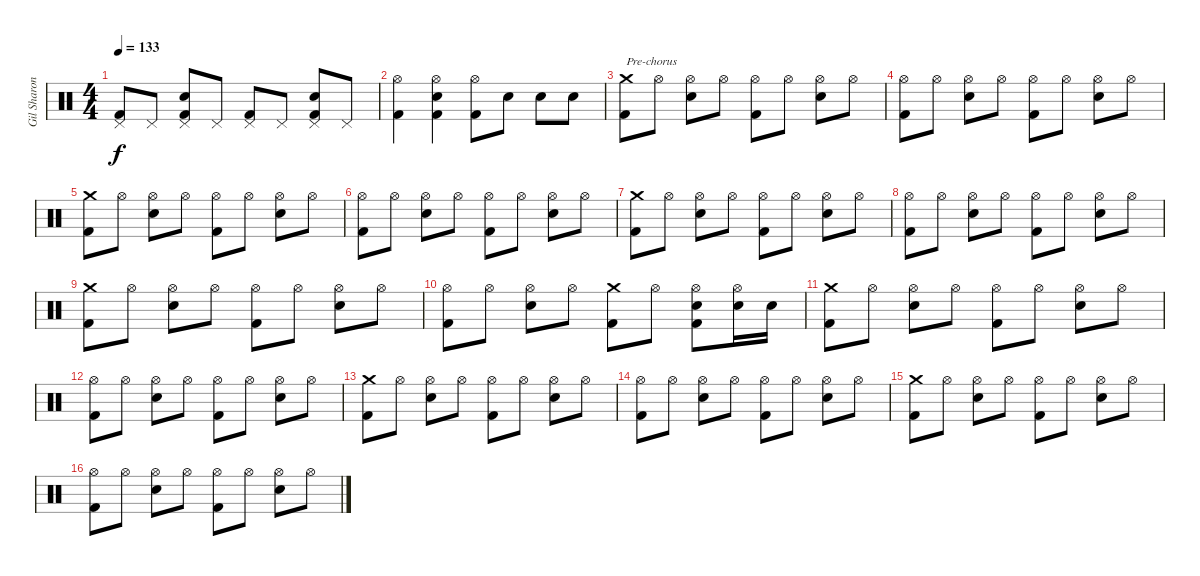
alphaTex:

\track ("Gil Sharone" "Gil Sharon") {instrument percussion}
\staff {score}
\articulation defaults
\ts (4 4)
\tempo 133
\clef neutral
\ks c
("Pedal Hi-Hat (hit)" "Kick (hit) 2").8{dy f} "Pedal Hi-Hat (hit)".8 ("Pedal Hi-Hat (hit)" "Electric Snare (hit)" "Kick (hit) 2").8 "Pedal Hi-Hat (hit)".8 ("Pedal Hi-Hat (hit)" "Kick (hit) 2").8 "Pedal Hi-Hat (hit)".8 ("Pedal Hi-Hat (hit)" "Electric Snare (hit)" "Kick (hit) 2").8 "Pedal Hi-Hat (hit)".8 |
("Hi-Hat (open)" "Kick (hit) 2").4 ("Hi-Hat (open)" "Electric Snare (hit)" "Kick (hit) 2").4 ("Hi-Hat (open)" "Kick (hit) 2").8 "Electric Snare (hit)".8 "Electric Snare (hit)".8 "Electric Snare (hit)".8 |
("Crash medium (hit)" "Kick (hit) 2").8{txt "Pre-chorus"} "Hi-Hat (open)".8 ("Hi-Hat (open)" "Electric Snare (hit)").8 "Hi-Hat (open)".8 ("Hi-Hat (open)" "Kick (hit) 2").8 "Hi-Hat (open)".8 ("Hi-Hat (open)" "Electric Snare (hit)").8 "Hi-Hat (open)".8 |
("Hi-Hat (open)" "Kick (hit) 2").8 "Hi-Hat (open)".8 ("Hi-Hat (open)" "Electric Snare (hit)").8 "Hi-Hat (open)".8 ("Hi-Hat (open)" "Kick (hit) 2").8 "Hi-Hat (open)".8 ("Hi-Hat (open)" "Electric Snare (hit)").8 "Hi-Hat (open)".8 |
("Crash medium (hit)" "Kick (hit) 2").8 "Hi-Hat (open)".8 ("Hi-Hat (open)" "Electric Snare (hit)").8 "Hi-Hat (open)".8 ("Hi-Hat (open)" "Kick (hit) 2").8 "Hi-Hat (open)".8 ("Hi-Hat (open)" "Electric Snare (hit)").8 "Hi-Hat (open)".8 |
("Hi-Hat (open)" "Kick (hit) 2").8 "Hi-Hat (open)".8 ("Hi-Hat (open)" "Electric Snare (hit)").8 "Hi-Hat (open)".8 ("Hi-Hat (open)" "Kick (hit) 2").8 "Hi-Hat (open)".8 ("Hi-Hat (open)" "Electric Snare (hit)").8 "Hi-Hat (open)".8 |
("Crash medium (hit)" "Kick (hit) 2").8 "Hi-Hat (open)".8 ("Hi-Hat (open)" "Electric Snare (hit)").8 "Hi-Hat (open)".8 ("Hi-Hat (open)" "Kick (hit) 2").8 "Hi-Hat (open)".8 ("Hi-Hat (open)" "Electric Snare (hit)").8 "Hi-Hat (open)".8 |
("Hi-Hat (open)" "Kick (hit) 2").8 "Hi-Hat (open)".8 ("Hi-Hat (open)" "Electric Snare (hit)").8 "Hi-Hat (open)".8 ("Hi-Hat (open)" "Kick (hit) 2").8 "Hi-Hat (open)".8 ("Hi-Hat (open)" "Electric Snare (hit)").8 "Hi-Hat (open)".8 |
("Crash medium (hit)" "Kick (hit) 2").8 "Hi-Hat (open)".8 ("Hi-Hat (open)" "Electric Snare (hit)").8 "Hi-Hat (open)".8 ("Hi-Hat (open)" "Kick (hit) 2").8 "Hi-Hat (open)".8 ("Hi-Hat (open)" "Electric Snare (hit)").8 "Hi-Hat (open)".8 |
("Hi-Hat (open)" "Kick (hit) 2").8 "Hi-Hat (open)".8 ("Hi-Hat (open)" "Electric Snare (hit)").8 "Hi-Hat (open)".8 ("Crash medium (hit)" "Kick (hit) 2").8 "Hi-Hat (open)".8 ("Hi-Hat (open)" "Electric Snare (hit)" "Kick (hit) 2").8 ("Hi-Hat (open)" "Electric Snare (hit)").16 "Electric Snare (hit)".16 |
("Crash medium (hit)" "Kick (hit) 2").8 "Hi-Hat (open)".8 ("Hi-Hat (open)" "Electric Snare (hit)").8 "Hi-Hat (open)".8 ("Hi-Hat (open)" "Kick (hit) 2").8 "Hi-Hat (open)".8 ("Hi-Hat (open)" "Electric Snare (hit)").8 "Hi-Hat (open)".8 |
("Hi-Hat (open)" "Kick (hit) 2").8 "Hi-Hat (open)".8 ("Hi-Hat (open)" "Electric Snare (hit)").8 "Hi-Hat (open)".8 ("Hi-Hat (open)" "Kick (hit) 2").8 "Hi-Hat (open)".8 ("Hi-Hat (open)" "Electric Snare (hit)").8 "Hi-Hat (open)".8 |
("Crash medium (hit)" "Kick (hit) 2").8 "Hi-Hat (open)".8 ("Hi-Hat (open)" "Electric Snare (hit)").8 "Hi-Hat (open)".8 ("Hi-Hat (open)" "Kick (hit) 2").8 "Hi-Hat (open)".8 ("Hi-Hat (open)" "Electric Snare (hit)").8 "Hi-Hat (open)".8 |
("Hi-Hat (open)" "Kick (hit) 2").8 "Hi-Hat (open)".8 ("Hi-Hat (open)" "Electric Snare (hit)").8 "Hi-Hat (open)".8 ("Hi-Hat (open)" "Kick (hit) 2").8 "Hi-Hat (open)".8 ("Hi-Hat (open)" "Electric Snare (hit)").8 "Hi-Hat (open)".8 |
("Crash medium (hit)" "Kick (hit) 2").8 "Hi-Hat (open)".8 ("Hi-Hat (open)" "Electric Snare (hit)").8 "Hi-Hat (open)".8 ("Hi-Hat (open)" "Kick (hit) 2").8 "Hi-Hat (open)".8 ("Hi-Hat (open)" "Electric Snare (hit)").8 "Hi-Hat (open)".8 |
("Hi-Hat (open)" "Kick (hit) 2").8 "Hi-Hat (open)".8 ("Hi-Hat (open)" "Electric Snare (hit)").8 "Hi-Hat (open)".8 ("Hi-Hat (open)" "Kick (hit) 2").8 "Hi-Hat (open)".8 ("Hi-Hat (open)" "Electric Snare (hit)").8 "Hi-Hat (open)".8
